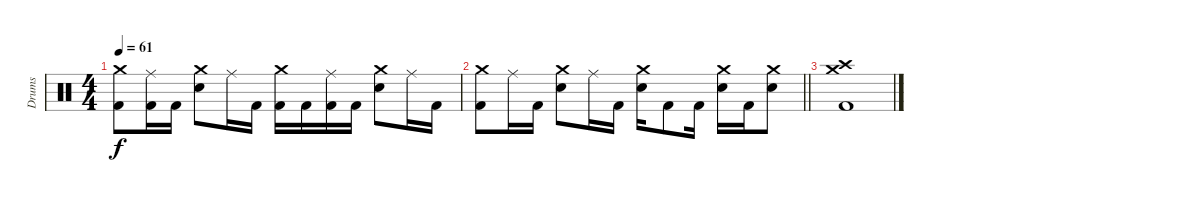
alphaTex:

\track ("Drums" "Drums") {instrument percussion}
\staff {score}
\articulation defaults
\ts (4 4)
\tempo 61
\clef neutral
\ks c
("Crash medium (hit)" "Kick (hit) 2").8{dy f} ("Ride (middle)" "Kick (hit) 2").16 "Kick (hit) 2".16 ("Crash medium (hit)" "Electric Snare (hit)").8 "Ride (middle)".16 "Kick (hit) 2".16 ("Crash medium (hit)" "Kick (hit) 2").16 "Kick (hit) 2".16 ("Ride (middle)" "Kick (hit) 2").16 "Kick (hit) 2".16 ("Crash medium (hit)" "Electric Snare (hit)").8 "Ride (middle)".16 "Kick (hit) 2".16 |
\barLineRight lightlight
("Crash medium (hit)" "Kick (hit) 2").8 "Ride (middle)".16 "Kick (hit) 2".16 ("Crash medium (hit)" "Electric Snare (hit)").8 "Ride (middle)".16 "Kick (hit) 2".16 ("Crash medium (hit)" "Electric Snare (hit)").16 "Kick (hit) 2".8 "Kick (hit) 2".16 ("Crash medium (hit)" "Electric Snare (hit)").16 "Kick (hit) 2".16 ("Crash medium (hit)" "Electric Snare (hit)").8 |
\section ("" "")
("Crash high (hit)" "Crash medium (hit)" "Kick (hit) 2").1
